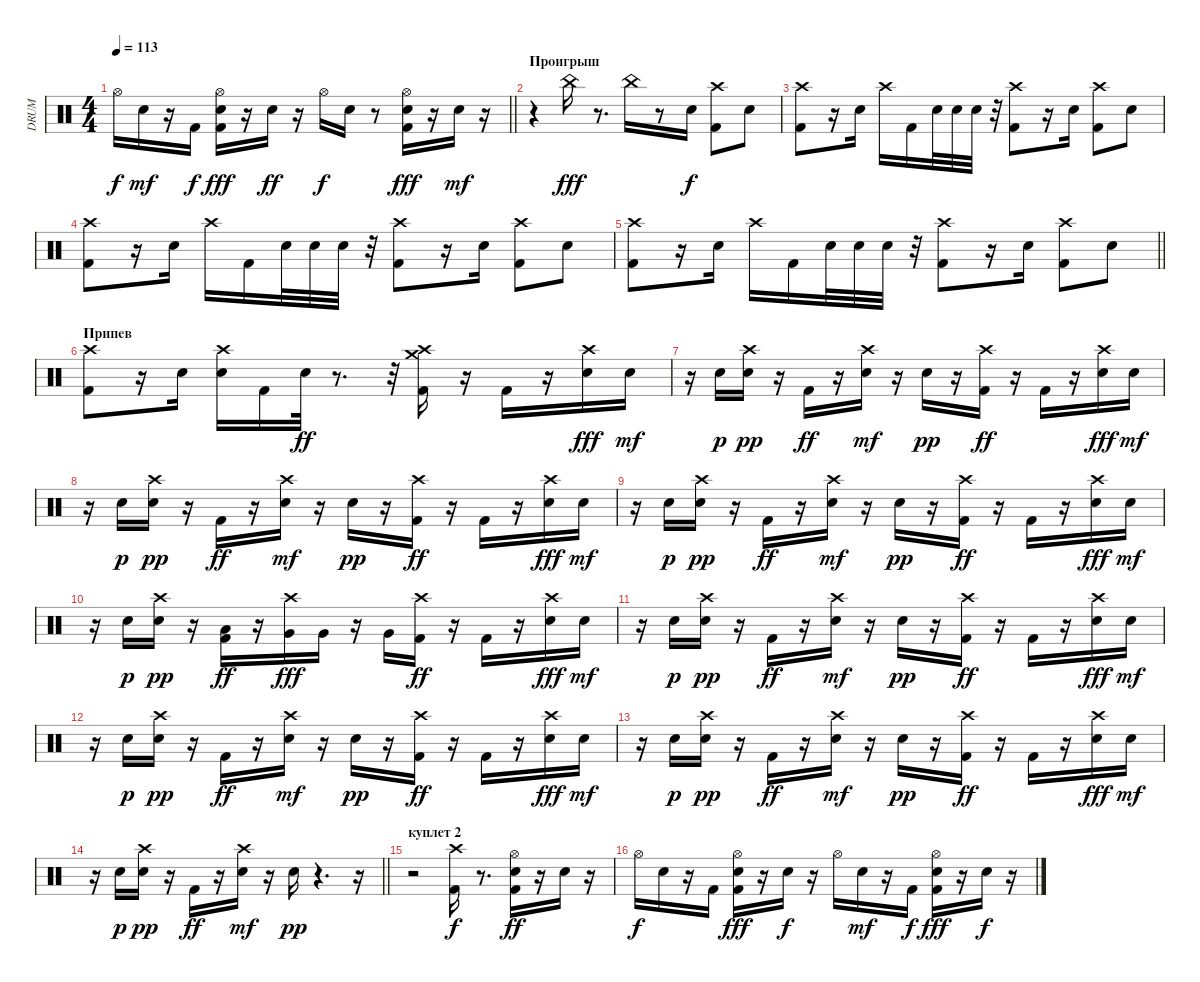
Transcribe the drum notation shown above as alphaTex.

\track ("DRUM" "DRUM") {instrument percussion}
\staff {score}
\articulation defaults
\ts (4 4)
\tempo 113
\clef neutral
\barLineRight lightlight
\ks c "Hi-Hat (open)".16{dy f} "Electric Snare (hit)".16{dy mf}
r.16 "Kick (hit) 2".16{dy f} ("Electric Snare (hit)" "Kick (hit) 2" "Hi-Hat (open)").16{dy fff} r.16 "Electric Snare (hit)".16{dy ff} r.16 "Hi-Hat (open)".16{dy f} "Electric Snare (hit)".16 r.8 ("Electric Snare (hit)" "Hi-Hat (open)" "Kick (hit) 2").16{dy fff} r.16 "Electric Snare (hit)".16{dy mf} r.16 |
\section ("" "Проигрыш")
r.4 "China (hit)".16{dy fff} r.8{d} "China (hit)".16 r.8 "Electric Snare (hit)".16{dy f} ("Kick (hit) 2" "Crash high (hit)").8 "Electric Snare (hit)".8 |
("Kick (hit) 2" "Crash high (hit)").8 r.16 "Electric Snare (hit)".16 "Crash high (hit)".16 "Kick (hit) 2".16 "Electric Snare (hit)".32 "Electric Snare (hit)".32 "Electric Snare (hit)".32 r.32 ("Kick (hit) 2" "Crash high (hit)").8 r.16 "Electric Snare (hit)".16 ("Kick (hit) 2" "Crash high (hit)").8 "Electric Snare (hit)".8 |
("Kick (hit) 2" "Crash high (hit)").8 r.16 "Electric Snare (hit)".16 "Crash high (hit)".16 "Kick (hit) 2".16 "Electric Snare (hit)".32 "Electric Snare (hit)".32 "Electric Snare (hit)".32 r.32 ("Kick (hit) 2" "Crash high (hit)").8 r.16 "Electric Snare (hit)".16 ("Kick (hit) 2" "Crash high (hit)").8 "Electric Snare (hit)".8 |
\barLineRight lightlight
("Kick (hit) 2" "Crash high (hit)").8 r.16 "Electric Snare (hit)".16 "Crash high (hit)".16 "Kick (hit) 2".16 "Electric Snare (hit)".32 "Electric Snare (hit)".32 "Electric Snare (hit)".32 r.32 ("Kick (hit) 2" "Crash high (hit)").8 r.16 "Electric Snare (hit)".16 ("Kick (hit) 2" "Crash high (hit)").8 "Electric Snare (hit)".8 |
\section ("" "Припев")
("Kick (hit) 2" "Crash high (hit)").8 r.16 "Electric Snare (hit)".16 ("Electric Snare (hit)" "Crash high (hit)").16 "Kick (hit) 2".16 "Electric Snare (hit)".32{dy ff} r.8{d} r.32 ("Crash medium (hit)" "Crash high (hit)" "Kick (hit) 2").16 r.16 "Kick (hit) 2".16 r.16 ("Crash high (hit)" "Electric Snare (hit)").16{dy fff} "Electric Snare (hit)".16{dy mf} |
r.16 "Electric Snare (hit)".16{dy p} ("Electric Snare (hit)" "Crash high (hit)").16{dy pp} r.16 "Kick (hit) 2".16{dy ff} r.16 ("Electric Snare (hit)" "Crash high (hit)").16{dy mf} r.16 "Electric Snare (hit)".16{dy pp} r.16 ("Crash high (hit)" "Kick (hit) 2").16{dy ff} r.16 "Kick (hit) 2".16 r.16 ("Crash high (hit)" "Electric Snare (hit)").16{dy fff} "Electric Snare (hit)".16{dy mf} |
r.16 "Electric Snare (hit)".16{dy p} ("Electric Snare (hit)" "Crash high (hit)").16{dy pp} r.16 "Kick (hit) 2".16{dy ff} r.16 ("Electric Snare (hit)" "Crash high (hit)").16{dy mf} r.16 "Electric Snare (hit)".16{dy pp} r.16 ("Crash high (hit)" "Kick (hit) 2").16{dy ff} r.16 "Kick (hit) 2".16 r.16 ("Crash high (hit)" "Electric Snare (hit)").16{dy fff} "Electric Snare (hit)".16{dy mf} |
r.16 "Electric Snare (hit)".16{dy p} ("Electric Snare (hit)" "Crash high (hit)").16{dy pp} r.16 "Kick (hit) 2".16{dy ff} r.16 ("Electric Snare (hit)" "Crash high (hit)").16{dy mf} r.16 "Electric Snare (hit)".16{dy pp} r.16 ("Crash high (hit)" "Kick (hit) 2").16{dy ff} r.16 "Kick (hit) 2".16 r.16 ("Electric Snare (hit)" "Crash high (hit)").16{dy fff} "Electric Snare (hit)".16{dy mf} |
r.16 "Electric Snare (hit)".16{dy p} ("Crash high (hit)" "Electric Snare (hit)").16{dy pp} r.16 ("Low Floor Tom (hit)" "Kick (hit) 2").16{dy ff} r.16 ("Crash high (hit)" "Very Low Tom (hit)").16{dy fff} "Very Low Tom (hit)".16 r.16 "Very Low Tom (hit)".16 ("Crash high (hit)" "Kick (hit) 2").16{dy ff} r.16 "Kick (hit) 2".16 r.16 ("Crash high (hit)" "Electric Snare (hit)").16{dy fff} "Electric Snare (hit)".16{dy mf} |
r.16 "Electric Snare (hit)".16{dy p} ("Electric Snare (hit)" "Crash high (hit)").16{dy pp} r.16 "Kick (hit) 2".16{dy ff} r.16 ("Electric Snare (hit)" "Crash high (hit)").16{dy mf} r.16 "Electric Snare (hit)".16{dy pp} r.16 ("Crash high (hit)" "Kick (hit) 2").16{dy ff} r.16 "Kick (hit) 2".16 r.16 ("Crash high (hit)" "Electric Snare (hit)").16{dy fff} "Electric Snare (hit)".16{dy mf} |
r.16 "Electric Snare (hit)".16{dy p} ("Electric Snare (hit)" "Crash high (hit)").16{dy pp} r.16 "Kick (hit) 2".16{dy ff} r.16 ("Electric Snare (hit)" "Crash high (hit)").16{dy mf} r.16 "Electric Snare (hit)".16{dy pp} r.16 ("Crash high (hit)" "Kick (hit) 2").16{dy ff} r.16 "Kick (hit) 2".16 r.16 ("Crash high (hit)" "Electric Snare (hit)").16{dy fff} "Electric Snare (hit)".16{dy mf} |
r.16 "Electric Snare (hit)".16{dy p} ("Electric Snare (hit)" "Crash high (hit)").16{dy pp} r.16 "Kick (hit) 2".16{dy ff} r.16 ("Electric Snare (hit)" "Crash high (hit)").16{dy mf} r.16 "Electric Snare (hit)".16{dy pp} r.16 ("Crash high (hit)" "Kick (hit) 2").16{dy ff} r.16 "Kick (hit) 2".16 r.16 ("Crash high (hit)" "Electric Snare (hit)").16{dy fff} "Electric Snare (hit)".16{dy mf} |
\barLineRight lightlight
r.16 "Electric Snare (hit)".16{dy p} ("Electric Snare (hit)" "Crash high (hit)").16{dy pp} r.16 "Kick (hit) 2".16{dy ff} r.16 ("Electric Snare (hit)" "Crash high (hit)").16{dy mf} r.16 "Electric Snare (hit)".16{dy pp} r.4{d} r.16 |
\section ("" "куплет 2")
r.2 ("Crash high (hit)" "Kick (hit) 2").16{dy f} r.8{d} ("Electric Snare (hit)" "Hi-Hat (open)" "Kick (hit) 2").16{dy ff} r.16 "Electric Snare (hit)".16 r.16 |
"Hi-Hat (open)".16{dy f} "Electric Snare (hit)".16 r.16 "Kick (hit) 2".16 ("Hi-Hat (open)" "Electric Snare (hit)" "Kick (hit) 2").16{dy fff} r.16 "Electric Snare (hit)".16{dy f} r.16 "Hi-Hat (open)".16 "Electric Snare (hit)".16{dy mf} r.16 "Kick (hit) 2".16{dy f} ("Kick (hit) 2" "Hi-Hat (open)" "Electric Snare (hit)").16{dy fff} r.16 "Electric Snare (hit)".16{dy f} r.16
